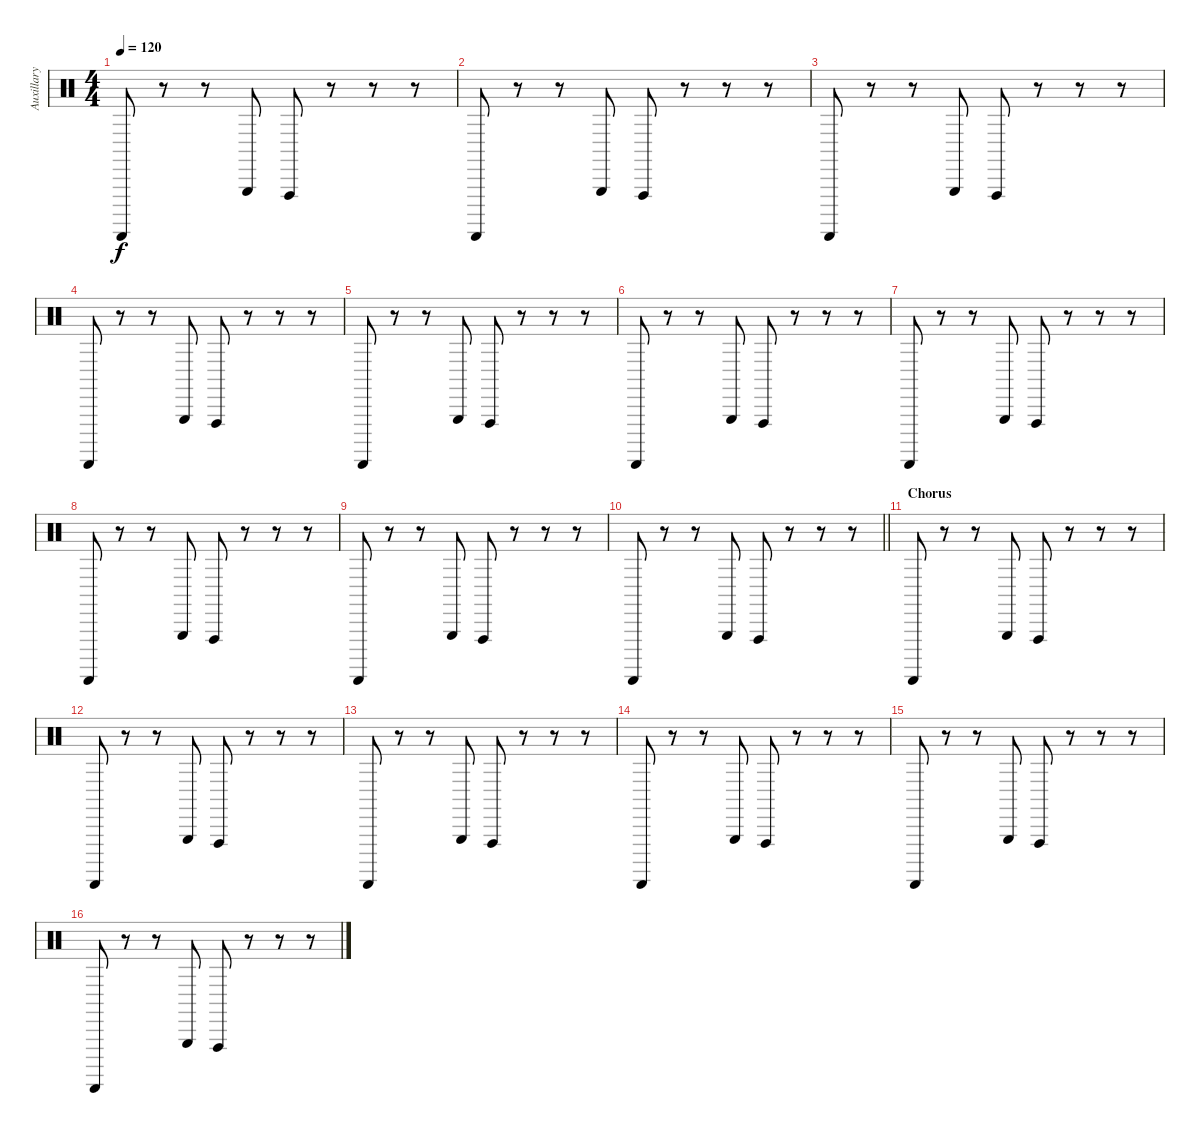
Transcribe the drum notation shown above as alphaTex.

\track ("Auxillary 2" "Auxillary ") {instrument percussion}
\staff {score}
\articulation defaults
\ts (4 4)
\tempo 120
\clef neutral
\ks c "Guiro (scrap-return)".8{dy f}
r.8 r.8 "Triangle (hit)".8 "Vibraslap (hit)".8 r.8 r.8 r.8 |
"Guiro (scrap-return)".8 r.8 r.8 "Triangle (hit)".8 "Vibraslap (hit)".8 r.8 r.8 r.8 |
"Guiro (scrap-return)".8 r.8 r.8 "Triangle (hit)".8 "Vibraslap (hit)".8 r.8 r.8 r.8 |
"Guiro (scrap-return)".8 r.8 r.8 "Triangle (hit)".8 "Vibraslap (hit)".8 r.8 r.8 r.8 |
"Guiro (scrap-return)".8 r.8 r.8 "Triangle (hit)".8 "Vibraslap (hit)".8 r.8 r.8 r.8 |
"Guiro (scrap-return)".8 r.8 r.8 "Triangle (hit)".8 "Vibraslap (hit)".8 r.8 r.8 r.8 |
"Guiro (scrap-return)".8 r.8 r.8 "Triangle (hit)".8 "Vibraslap (hit)".8 r.8 r.8 r.8 |
"Guiro (scrap-return)".8 r.8 r.8 "Triangle (hit)".8 "Vibraslap (hit)".8 r.8 r.8 r.8 |
"Guiro (scrap-return)".8 r.8 r.8 "Triangle (hit)".8 "Vibraslap (hit)".8 r.8 r.8 r.8 |
\barLineRight lightlight "Guiro (scrap-return)".8
r.8 r.8 "Triangle (hit)".8 "Vibraslap (hit)".8 r.8 r.8 r.8 |
\section ("" "Chorus")
"Guiro (scrap-return)".8 r.8 r.8 "Triangle (hit)".8 "Vibraslap (hit)".8 r.8 r.8 r.8 |
"Guiro (scrap-return)".8 r.8 r.8 "Triangle (hit)".8 "Vibraslap (hit)".8 r.8 r.8 r.8 |
"Guiro (scrap-return)".8 r.8 r.8 "Triangle (hit)".8 "Vibraslap (hit)".8 r.8 r.8 r.8 |
"Guiro (scrap-return)".8 r.8 r.8 "Triangle (hit)".8 "Vibraslap (hit)".8 r.8 r.8 r.8 |
"Guiro (scrap-return)".8 r.8 r.8 "Triangle (hit)".8 "Vibraslap (hit)".8 r.8 r.8 r.8 |
"Guiro (scrap-return)".8 r.8 r.8 "Triangle (hit)".8 "Vibraslap (hit)".8 r.8 r.8 r.8
